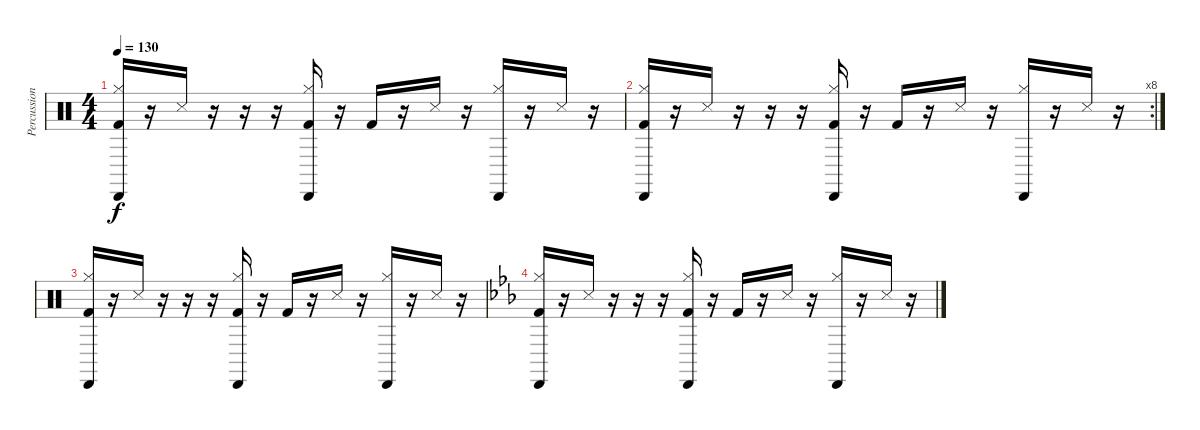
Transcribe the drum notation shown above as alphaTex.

\track ("Percussion" "Percussion") {instrument percussion}
\staff {score}
\articulation defaults
\ts (4 4)
\tempo 130
\clef neutral
\ks c
("Cabasa (hit)" "Hi-Hat (closed)" "Kick (hit) 2").16{dy f} r.16 "Snare (side stick) 3".16 r.16 r.16 r.16 ("Cabasa (hit)" "Hi-Hat (closed)" "Kick (hit) 2").16 r.16 "Kick (hit) 2".16 r.16 "Snare (side stick) 3".16 r.16 ("Cabasa (hit)" "Hi-Hat (closed)").16 r.16 "Snare (side stick) 3".16 r.16 |
\rc 8
("Cabasa (hit)" "Hi-Hat (closed)" "Kick (hit) 2").16 r.16 "Snare (side stick) 3".16 r.16 r.16 r.16 ("Cabasa (hit)" "Hi-Hat (closed)" "Kick (hit) 2").16 r.16 "Kick (hit) 2".16 r.16 "Snare (side stick) 3".16 r.16 ("Cabasa (hit)" "Hi-Hat (closed)").16 r.16 "Snare (side stick) 3".16 r.16 |
("Cabasa (hit)" "Hi-Hat (closed)" "Kick (hit) 2").16 r.16 "Snare (side stick) 3".16 r.16 r.16 r.16 ("Cabasa (hit)" "Hi-Hat (closed)" "Kick (hit) 2").16 r.16 "Kick (hit) 2".16 r.16 "Snare (side stick) 3".16 r.16 ("Cabasa (hit)" "Hi-Hat (closed)").16 r.16 "Snare (side stick) 3".16 r.16 |
\ks eb
("Cabasa (hit)" "Hi-Hat (closed)" "Kick (hit) 2").16 r.16 "Snare (side stick) 3".16 r.16 r.16 r.16 ("Cabasa (hit)" "Hi-Hat (closed)" "Kick (hit) 2").16 r.16 "Kick (hit) 2".16 r.16 "Snare (side stick) 3".16 r.16 ("Cabasa (hit)" "Hi-Hat (closed)").16 r.16 "Snare (side stick) 3".16 r.16
